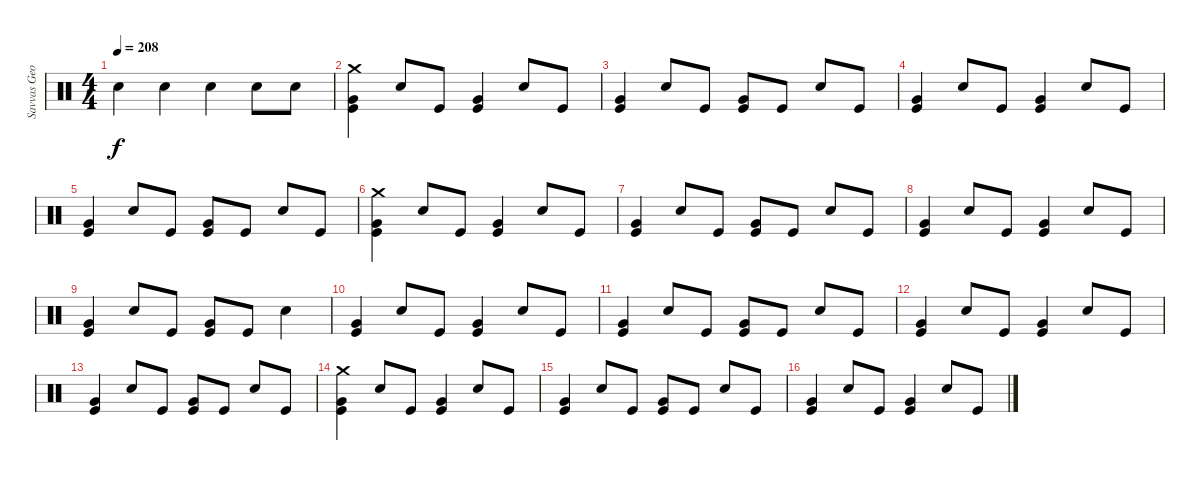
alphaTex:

\track ("Savvas Georgiadis" "Savvas Geo") {instrument percussion}
\staff {score}
\articulation defaults
\ts (4 4)
\tempo 208
\clef neutral
\ks c "Snare (hit) 2".4{dy f} "Snare (hit) 2".4 "Snare (hit) 2".4 "Snare (hit) 2".8 "Snare (hit) 2".8
|
("Crash medium (hit)" "Very Low Tom (hit)" "Kick (hit)").4 "Snare (hit) 2".8 "Kick (hit)".8 ("Very Low Tom (hit)" "Kick (hit)").4 "Snare (hit) 2".8 "Kick (hit)".8 |
("Very Low Tom (hit)" "Kick (hit)").4 "Snare (hit) 2".8 "Kick (hit)".8 ("Very Low Tom (hit)" "Kick (hit)").8 "Kick (hit)".8 "Snare (hit) 2".8 "Kick (hit)".8 |
("Very Low Tom (hit)" "Kick (hit)").4 "Snare (hit) 2".8 "Kick (hit)".8 ("Very Low Tom (hit)" "Kick (hit)").4 "Snare (hit) 2".8 "Kick (hit)".8 |
("Very Low Tom (hit)" "Kick (hit)").4 "Snare (hit) 2".8 "Kick (hit)".8 ("Very Low Tom (hit)" "Kick (hit)").8 "Kick (hit)".8 "Snare (hit) 2".8 "Kick (hit)".8 |
("Crash medium (hit)" "Very Low Tom (hit)" "Kick (hit)").4 "Snare (hit) 2".8 "Kick (hit)".8 ("Very Low Tom (hit)" "Kick (hit)").4 "Snare (hit) 2".8 "Kick (hit)".8 |
("Very Low Tom (hit)" "Kick (hit)").4 "Snare (hit) 2".8 "Kick (hit)".8 ("Very Low Tom (hit)" "Kick (hit)").8 "Kick (hit)".8 "Snare (hit) 2".8 "Kick (hit)".8 |
("Very Low Tom (hit)" "Kick (hit)").4 "Snare (hit) 2".8 "Kick (hit)".8 ("Very Low Tom (hit)" "Kick (hit)").4 "Snare (hit) 2".8 "Kick (hit)".8 |
("Very Low Tom (hit)" "Kick (hit)").4 "Snare (hit) 2".8 "Kick (hit)".8 ("Very Low Tom (hit)" "Kick (hit)").8 "Kick (hit)".8 "Snare (hit) 2".4 |
("Very Low Tom (hit)" "Kick (hit)").4 "Snare (hit) 2".8 "Kick (hit)".8 ("Very Low Tom (hit)" "Kick (hit)").4 "Snare (hit) 2".8 "Kick (hit)".8 |
("Very Low Tom (hit)" "Kick (hit)").4 "Snare (hit) 2".8 "Kick (hit)".8 ("Very Low Tom (hit)" "Kick (hit)").8 "Kick (hit)".8 "Snare (hit) 2".8 "Kick (hit)".8 |
("Very Low Tom (hit)" "Kick (hit)").4 "Snare (hit) 2".8 "Kick (hit)".8 ("Very Low Tom (hit)" "Kick (hit)").4 "Snare (hit) 2".8 "Kick (hit)".8 |
("Very Low Tom (hit)" "Kick (hit)").4 "Snare (hit) 2".8 "Kick (hit)".8 ("Very Low Tom (hit)" "Kick (hit)").8 "Kick (hit)".8 "Snare (hit) 2".8 "Kick (hit)".8 |
("Crash medium (hit)" "Very Low Tom (hit)" "Kick (hit)").4 "Snare (hit) 2".8 "Kick (hit)".8 ("Very Low Tom (hit)" "Kick (hit)").4 "Snare (hit) 2".8 "Kick (hit)".8 |
("Very Low Tom (hit)" "Kick (hit)").4 "Snare (hit) 2".8 "Kick (hit)".8 ("Very Low Tom (hit)" "Kick (hit)").8 "Kick (hit)".8 "Snare (hit) 2".8 "Kick (hit)".8 |
("Very Low Tom (hit)" "Kick (hit)").4 "Snare (hit) 2".8 "Kick (hit)".8 ("Very Low Tom (hit)" "Kick (hit)").4 "Snare (hit) 2".8 "Kick (hit)".8
